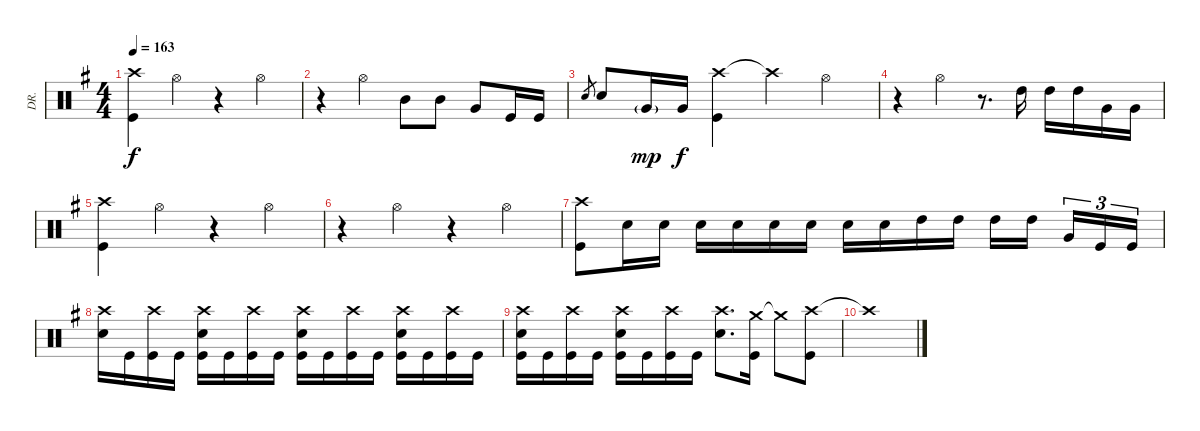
\track ("DR." "DR.") {instrument percussion}
\staff {score}
\articulation defaults
\ts (4 4)
\tempo 163
\clef neutral
\ks g
("Crash high (hit)" "Kick (hit)").4{dy f} "Hi-Hat (open)".4 r.4 "Hi-Hat (open)".4 |
r.4 "Hi-Hat (open)".4 "Mid Tom (hit)".8 "Mid Tom (hit)".8 "Very Low Tom (hit)".8 "Kick (hit)".16 "Kick (hit)".16 |
"Snare (hit) 2"{h}.8{gr} "Snare (hit) 2".8 "Very Low Tom (hit)"{g}.16{dy mp} "Very Low Tom (hit)".16{dy f} ("Crash high (hit)" "Kick (hit)").4 "Crash high (hit)"{t}.4 "Hi-Hat (open)".4 |
r.4 "Hi-Hat (open)".4 r.8{d} "High Tom (hit)".16 "High Tom (hit)".16 "High Tom (hit)".16 "Very Low Tom (hit)".16 "Very Low Tom (hit)".16 |
("Crash high (hit)" "Kick (hit)").4 "Hi-Hat (open)".4 r.4 "Hi-Hat (open)".4 |
r.4 "Hi-Hat (open)".4 r.4 "Hi-Hat (open)".4 |
("Crash high (hit)" "Kick (hit)").8 "Snare (hit) 2".16{volume 3} "Snare (hit) 2".16{volume 12} "Snare (hit) 2".16 "Snare (hit) 2".16 "Snare (hit) 2".16 "Snare (hit) 2".16 "Snare (hit) 2".16 "Snare (hit) 2".16 "High Tom (hit)".16 "High Tom (hit)".16 "High Tom (hit)".16 "High Tom (hit)".16{beam splitsecondary} "Very Low Tom (hit)".16{tu (3 2)} "Kick (hit)".16{tu (3 2)} "Kick (hit)".16{tu (3 2)} |
("Crash high (hit)" "Snare (hit) 2").16 "Kick (hit)".16 ("Crash high (hit)" "Kick (hit)").16 "Kick (hit)".16 ("Crash high (hit)" "Snare (hit) 2" "Kick (hit)").16 "Kick (hit)".16 ("Crash high (hit)" "Kick (hit)").16 "Kick (hit)".16 ("Crash high (hit)" "Snare (hit) 2" "Kick (hit)").16 "Kick (hit)".16 ("Crash high (hit)" "Kick (hit)").16 "Kick (hit)".16 ("Crash high (hit)" "Snare (hit) 2" "Kick (hit)").16 "Kick (hit)".16 ("Crash high (hit)" "Kick (hit)").16 "Kick (hit)".16 |
("Crash high (hit)" "Snare (hit) 2" "Kick (hit)").16 "Kick (hit)".16 ("Crash high (hit)" "Kick (hit)").16 "Kick (hit)".16 ("Crash high (hit)" "Snare (hit) 2" "Kick (hit)").16 "Kick (hit)".16 ("Crash high (hit)" "Kick (hit)").16 "Kick (hit)".16 ("Crash high (hit)" "Snare (hit) 2").8{d} ("Crash medium (hit)" "Kick (hit)").16 "Crash medium (hit)"{t}.8 ("Crash high (hit)" "Kick (hit)").8 |
"Crash high (hit)"{t}.1
